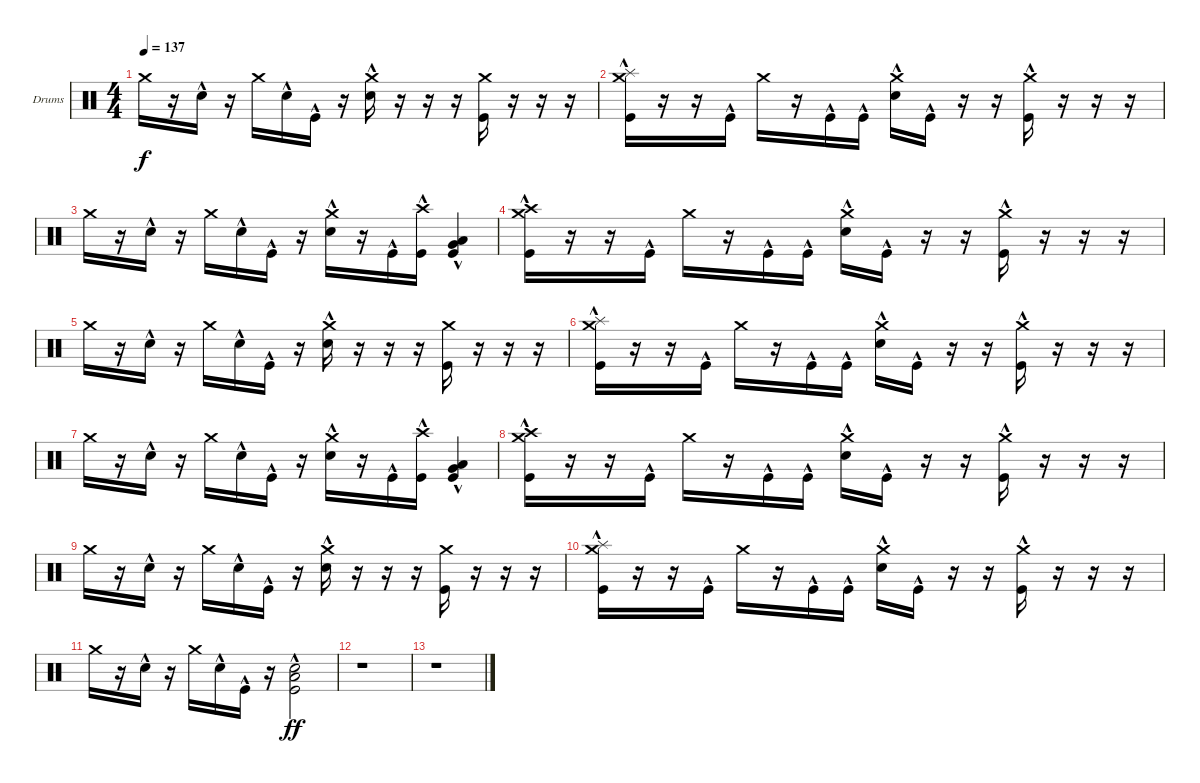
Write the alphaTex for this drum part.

\defaultSystemsLayout 4
\bracketExtendMode groupsimilarinstruments
\firstSystemTrackNameOrientation horizontal
\otherSystemsTrackNameOrientation horizontal
\track ("Drumkit - Paul" "Drums") {instrument percussion}
\staff {score}
\articulation defaults
\ts (4 4)
\tempo 137
\clef neutral
\ks c "Crash medium (hit)".16{dy f}
r.16 "Snare (hit) 2"{hac}.16 r.16 "Crash medium (hit)".16 "Snare (hit) 2"{hac}.16 "Kick (hit)"{hac}.16 r.16 ("Snare (hit) 2"{hac} "Crash medium (hit)").16 r.16 r.16 r.16 ("Kick (hit)" "Crash medium (hit)").16 r.16 r.16 r.16 |
("Crash medium (hit)" "Kick (hit)"{hac} "Splash (hit)").16 r.16 r.16 "Kick (hit)"{hac}.16 "Crash medium (hit)".16 r.16 "Kick (hit)"{hac}.16 "Kick (hit)"{hac}.16 ("Crash medium (hit)" "Snare (hit) 2"{hac}).16 "Kick (hit)"{hac}.16 r.16 r.16 ("Crash medium (hit)" "Kick (hit)"{hac}).16 r.16 r.16 r.16 |
"Crash medium (hit)".16 r.16 "Snare (hit) 2"{hac}.16 r.16 "Crash medium (hit)".16 "Snare (hit) 2"{hac}.16 "Kick (hit)"{hac}.16 r.16 ("Snare (hit) 2"{hac} "Crash medium (hit)").16 r.16 "Kick (hit)"{hac}.16 ("Kick (hit)"{hac} "Crash high (hit)").16 ("Kick (hit)"{hac} "Very Low Tom (hit)"{hac} "Low Tom (hit)"{hac}).4 |
("Crash medium (hit)" "Kick (hit)"{hac} "Crash high (hit)"{hac}).16 r.16 r.16 "Kick (hit)"{hac}.16 "Crash medium (hit)".16 r.16 "Kick (hit)"{hac}.16 "Kick (hit)"{hac}.16 ("Crash medium (hit)" "Snare (hit) 2"{hac}).16 "Kick (hit)"{hac}.16 r.16 r.16 ("Crash medium (hit)" "Kick (hit)"{hac}).16 r.16 r.16 r.16 |
"Crash medium (hit)".16 r.16 "Snare (hit) 2"{hac}.16 r.16 "Crash medium (hit)".16 "Snare (hit) 2"{hac}.16 "Kick (hit)"{hac}.16 r.16 ("Snare (hit) 2"{hac} "Crash medium (hit)").16 r.16 r.16 r.16 ("Kick (hit)" "Crash medium (hit)").16 r.16 r.16 r.16 |
("Crash medium (hit)" "Kick (hit)"{hac} "Splash (hit)").16 r.16 r.16 "Kick (hit)"{hac}.16 "Crash medium (hit)".16 r.16 "Kick (hit)"{hac}.16 "Kick (hit)"{hac}.16 ("Crash medium (hit)" "Snare (hit) 2"{hac}).16 "Kick (hit)"{hac}.16 r.16 r.16 ("Crash medium (hit)" "Kick (hit)"{hac}).16 r.16 r.16 r.16 |
"Crash medium (hit)".16 r.16 "Snare (hit) 2"{hac}.16 r.16 "Crash medium (hit)".16 "Snare (hit) 2"{hac}.16 "Kick (hit)"{hac}.16 r.16 ("Snare (hit) 2"{hac} "Crash medium (hit)").16 r.16 "Kick (hit)"{hac}.16 ("Kick (hit)"{hac} "Crash high (hit)").16 ("Kick (hit)"{hac} "Very Low Tom (hit)"{hac} "Low Tom (hit)"{hac}).4 |
("Crash medium (hit)" "Kick (hit)"{hac} "Crash high (hit)"{hac}).16 r.16 r.16 "Kick (hit)"{hac}.16 "Crash medium (hit)".16 r.16 "Kick (hit)"{hac}.16 "Kick (hit)"{hac}.16 ("Crash medium (hit)" "Snare (hit) 2"{hac}).16 "Kick (hit)"{hac}.16 r.16 r.16 ("Crash medium (hit)" "Kick (hit)"{hac}).16 r.16 r.16 r.16 |
"Crash medium (hit)".16 r.16 "Snare (hit) 2"{hac}.16 r.16 "Crash medium (hit)".16 "Snare (hit) 2"{hac}.16 "Kick (hit)"{hac}.16 r.16 ("Snare (hit) 2"{hac} "Crash medium (hit)").16 r.16 r.16 r.16 ("Kick (hit)" "Crash medium (hit)").16 r.16 r.16 r.16 |
("Crash medium (hit)" "Kick (hit)"{hac} "Splash (hit)").16 r.16 r.16 "Kick (hit)"{hac}.16 "Crash medium (hit)".16 r.16 "Kick (hit)"{hac}.16 "Kick (hit)"{hac}.16 ("Crash medium (hit)" "Snare (hit) 2"{hac}).16 "Kick (hit)"{hac}.16 r.16 r.16 ("Crash medium (hit)" "Kick (hit)"{hac}).16 r.16 r.16 r.16 |
"Crash medium (hit)".16 r.16 "Snare (hit) 2"{hac}.16 r.16 "Crash medium (hit)".16 "Snare (hit) 2"{hac}.16 "Kick (hit)"{hac}.16 r.16 ("Kick (hit)"{hac} "Low Tom (hit)"{hac} "Snare (hit) 2"{hac}).2{dy ff} |
r.1 |
r.1
